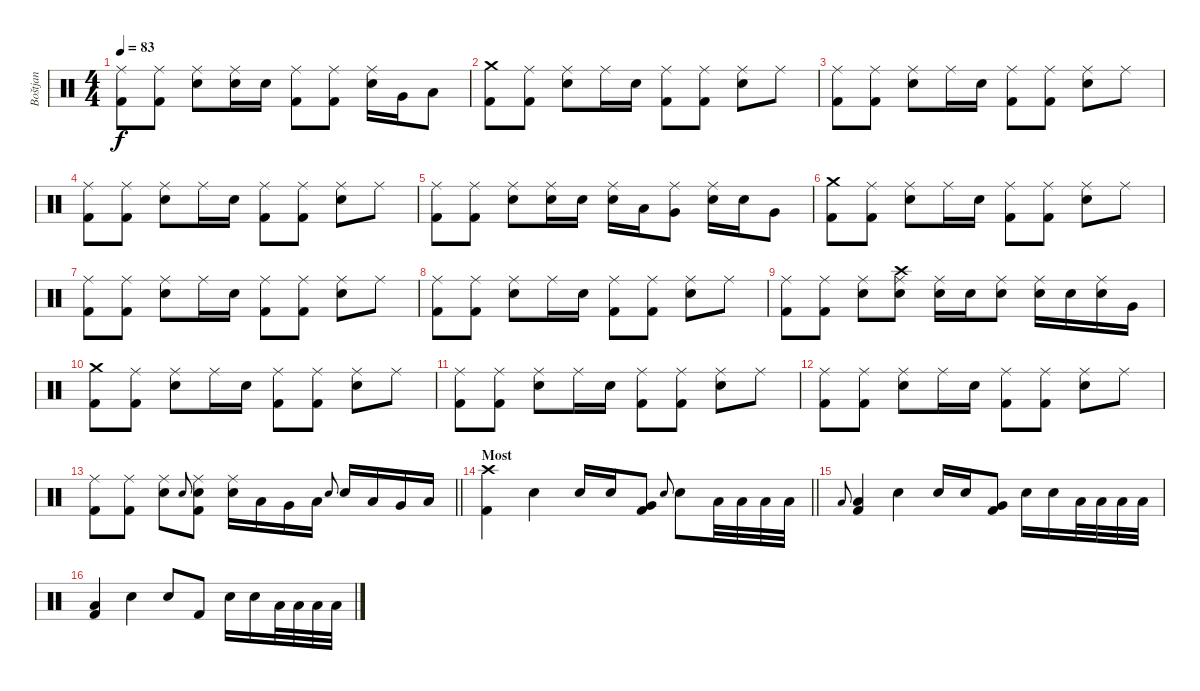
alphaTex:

\track ("Boštjan" "Boštjan") {instrument percussion}
\staff {score}
\articulation defaults
\ts (4 4)
\tempo 83
\clef neutral
\ks c
("Ride (middle)" "Kick (hit) 2").8{dy f} ("Ride (middle)" "Kick (hit) 2").8 ("Ride (middle)" "Snare (hit) 2").8 ("Ride (middle)" "Snare (hit) 2").16 "Snare (hit) 2".16 ("Ride (middle)" "Kick (hit) 2").8 ("Ride (middle)" "Kick (hit) 2").8 ("Ride (middle)" "Snare (hit) 2").16 "Very Low Tom (hit)".16 "Low Floor Tom (hit)".8 |
("Crash medium (hit)" "Kick (hit) 2").8 ("Ride (middle)" "Kick (hit) 2").8 ("Ride (middle)" "Snare (hit) 2").8 "Ride (middle)".16 "Snare (hit) 2".16 ("Ride (middle)" "Kick (hit) 2").8 ("Ride (middle)" "Kick (hit) 2").8 ("Ride (middle)" "Snare (hit) 2").8 "Ride (middle)".8 |
("Ride (middle)" "Kick (hit) 2").8 ("Ride (middle)" "Kick (hit) 2").8 ("Ride (middle)" "Snare (hit) 2").8 "Ride (middle)".16 "Snare (hit) 2".16 ("Ride (middle)" "Kick (hit) 2").8 ("Ride (middle)" "Kick (hit) 2").8 ("Ride (middle)" "Snare (hit) 2").8 "Ride (middle)".8 |
("Ride (middle)" "Kick (hit) 2").8 ("Ride (middle)" "Kick (hit) 2").8 ("Ride (middle)" "Snare (hit) 2").8 "Ride (middle)".16 "Snare (hit) 2".16 ("Ride (middle)" "Kick (hit) 2").8 ("Ride (middle)" "Kick (hit) 2").8 ("Ride (middle)" "Snare (hit) 2").8 "Ride (middle)".8 |
("Ride (middle)" "Kick (hit) 2").8 ("Ride (middle)" "Kick (hit) 2").8 ("Ride (middle)" "Snare (hit) 2").8 ("Ride (middle)" "Snare (hit) 2").16 "Snare (hit) 2".16 ("Ride (middle)" "Snare (hit) 2").16 "Low Tom (hit)".16 ("Ride (middle)" "Very Low Tom (hit)").8 ("Ride (middle)" "Snare (hit) 2").16 "Snare (hit) 2".16 "Very Low Tom (hit)".8 |
("Crash medium (hit)" "Kick (hit) 2").8 ("Ride (middle)" "Kick (hit) 2").8 ("Ride (middle)" "Snare (hit) 2").8 "Ride (middle)".16 "Snare (hit) 2".16 ("Ride (middle)" "Kick (hit) 2").8 ("Ride (middle)" "Kick (hit) 2").8 ("Ride (middle)" "Snare (hit) 2").8 "Ride (middle)".8 |
("Ride (middle)" "Kick (hit) 2").8 ("Ride (middle)" "Kick (hit) 2").8 ("Ride (middle)" "Snare (hit) 2").8 "Ride (middle)".16 "Snare (hit) 2".16 ("Ride (middle)" "Kick (hit) 2").8 ("Ride (middle)" "Kick (hit) 2").8 ("Ride (middle)" "Snare (hit) 2").8 "Ride (middle)".8 |
("Ride (middle)" "Kick (hit) 2").8 ("Ride (middle)" "Kick (hit) 2").8 ("Ride (middle)" "Snare (hit) 2").8 "Ride (middle)".16 "Snare (hit) 2".16 ("Ride (middle)" "Kick (hit) 2").8 ("Ride (middle)" "Kick (hit) 2").8 ("Ride (middle)" "Snare (hit) 2").8 "Ride (middle)".8 |
("Ride (middle)" "Kick (hit) 2").8 ("Ride (middle)" "Kick (hit) 2").8 ("Ride (middle)" "Snare (hit) 2").8 ("Ride (middle)" "Crash high (hit)" "Snare (hit) 2").8 ("Ride (middle)" "Snare (hit) 2").16 "Snare (hit) 2".16 ("Ride (middle)" "Snare (hit) 2").8 ("Ride (middle)" "Snare (hit) 2").16 "Snare (hit) 2".16 ("Ride (middle)" "Snare (hit) 2").16 "Very Low Tom (hit)".16 |
("Crash medium (hit)" "Kick (hit) 2").8 ("Ride (middle)" "Kick (hit) 2").8 ("Ride (middle)" "Snare (hit) 2").8 "Ride (middle)".16 "Snare (hit) 2".16 ("Ride (middle)" "Kick (hit) 2").8 ("Ride (middle)" "Kick (hit) 2").8 ("Ride (middle)" "Snare (hit) 2").8 "Ride (middle)".8 |
("Ride (middle)" "Kick (hit) 2").8 ("Ride (middle)" "Kick (hit) 2").8 ("Ride (middle)" "Snare (hit) 2").8 "Ride (middle)".16 "Snare (hit) 2".16 ("Ride (middle)" "Kick (hit) 2").8 ("Ride (middle)" "Kick (hit) 2").8 ("Ride (middle)" "Snare (hit) 2").8 "Ride (middle)".8 |
("Ride (middle)" "Kick (hit) 2").8 ("Ride (middle)" "Kick (hit) 2").8 ("Ride (middle)" "Snare (hit) 2").8 "Ride (middle)".16 "Snare (hit) 2".16 ("Ride (middle)" "Kick (hit) 2").8 ("Ride (middle)" "Kick (hit) 2").8 ("Ride (middle)" "Snare (hit) 2").8 "Ride (middle)".8 |
\barLineRight lightlight
("Ride (middle)" "Kick (hit) 2").8 ("Ride (middle)" "Kick (hit) 2").8 ("Ride (middle)" "Snare (hit) 2").8 "Snare (hit) 2".8{gr onbeat} ("Ride (middle)" "Snare (hit) 2" "Kick (hit) 2").8 ("Ride (middle)" "Snare (hit) 2").16 "Low Tom (hit)".16 "Very Low Tom (hit)".16 "Low Floor Tom (hit)".16 "Snare (hit) 2".8{gr onbeat} "Snare (hit) 2".16 "Low Tom (hit)".16 "Very Low Tom (hit)".16 "Low Floor Tom (hit)".16 |
\section ("" "Most")
\barLineRight lightlight
("Crash high (hit)" "Kick (hit) 2").4 "Snare (hit) 2".4 "Snare (hit) 2".16 "Snare (hit) 2".16 ("Very Low Tom (hit)" "Kick (hit) 2").8 "Snare (hit) 2".8{gr onbeat} "Snare (hit) 2".8 "Low Floor Tom (hit)".32 "Low Floor Tom (hit)".32 "Low Floor Tom (hit)".32 "Low Floor Tom (hit)".32 |
"Low Floor Tom (hit)".8{gr onbeat} ("Low Floor Tom (hit)" "Kick (hit) 2").4 "Snare (hit) 2".4 "Snare (hit) 2".16 "Snare (hit) 2".16 ("Very Low Tom (hit)" "Kick (hit) 2").8 "Snare (hit) 2".16 "Snare (hit) 2".16 "Low Floor Tom (hit)".32 "Low Floor Tom (hit)".32 "Low Floor Tom (hit)".32 "Low Floor Tom (hit)".32 |
("Low Floor Tom (hit)" "Kick (hit) 2").4 "Snare (hit) 2".4 "Snare (hit) 2".8 "Kick (hit) 2".8 "Snare (hit) 2".16 "Snare (hit) 2".16 "Low Floor Tom (hit)".32 "Low Floor Tom (hit)".32 "Low Floor Tom (hit)".32 "Low Floor Tom (hit)".32
